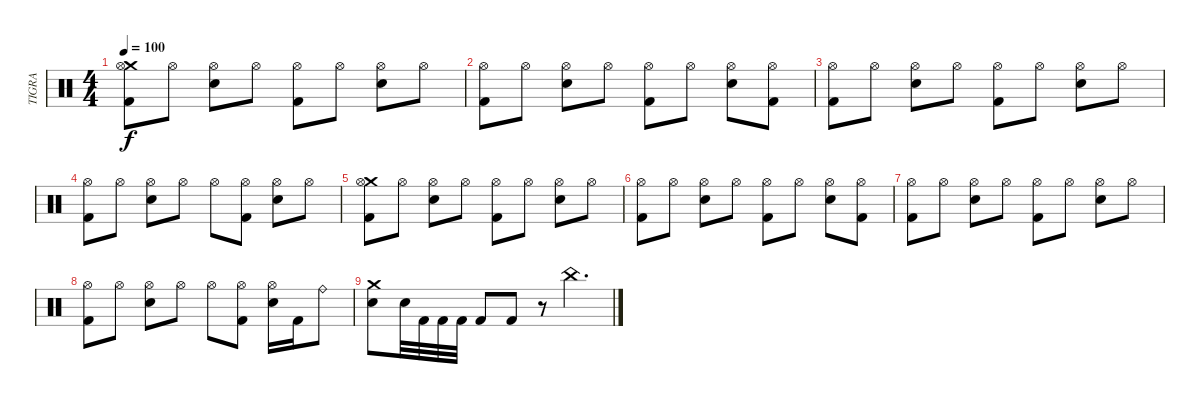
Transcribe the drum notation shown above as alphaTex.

\track ("TIGRA" "TIGRA") {instrument percussion}
\staff {score}
\articulation defaults
\ts (4 4)
\tempo 100
\clef neutral
\ks c
("Crash medium (hit)" "Hi-Hat (open)" "Kick (hit) 2").8{dy f} "Hi-Hat (open)".8 ("Hi-Hat (open)" "Snare (hit) 2").8 "Hi-Hat (open)".8 ("Hi-Hat (open)" "Kick (hit) 2").8 "Hi-Hat (open)".8 ("Hi-Hat (open)" "Snare (hit) 2").8 "Hi-Hat (open)".8 |
("Hi-Hat (open)" "Kick (hit) 2").8 "Hi-Hat (open)".8 ("Hi-Hat (open)" "Snare (hit) 2").8 "Hi-Hat (open)".8 ("Hi-Hat (open)" "Kick (hit) 2").8 "Hi-Hat (open)".8 ("Hi-Hat (open)" "Snare (hit) 2").8 ("Hi-Hat (open)" "Kick (hit) 2").8 |
("Hi-Hat (open)" "Kick (hit) 2").8 "Hi-Hat (open)".8 ("Hi-Hat (open)" "Snare (hit) 2").8 "Hi-Hat (open)".8 ("Hi-Hat (open)" "Kick (hit) 2").8 "Hi-Hat (open)".8 ("Hi-Hat (open)" "Snare (hit) 2").8 "Hi-Hat (open)".8 |
("Hi-Hat (open)" "Kick (hit) 2").8 "Hi-Hat (open)".8 ("Hi-Hat (open)" "Snare (hit) 2").8 "Hi-Hat (open)".8 "Hi-Hat (open)".8 ("Hi-Hat (open)" "Kick (hit) 2").8 ("Hi-Hat (open)" "Snare (hit) 2").8 "Hi-Hat (open)".8 |
("Crash medium (hit)" "Hi-Hat (open)" "Kick (hit) 2").8 "Hi-Hat (open)".8 ("Hi-Hat (open)" "Snare (hit) 2").8 "Hi-Hat (open)".8 ("Hi-Hat (open)" "Kick (hit) 2").8 "Hi-Hat (open)".8 ("Hi-Hat (open)" "Snare (hit) 2").8 "Hi-Hat (open)".8 |
("Hi-Hat (open)" "Kick (hit) 2").8 "Hi-Hat (open)".8 ("Hi-Hat (open)" "Snare (hit) 2").8 "Hi-Hat (open)".8 ("Hi-Hat (open)" "Kick (hit) 2").8 "Hi-Hat (open)".8 ("Hi-Hat (open)" "Snare (hit) 2").8 ("Hi-Hat (open)" "Kick (hit) 2").8 |
("Hi-Hat (open)" "Kick (hit) 2").8 "Hi-Hat (open)".8 ("Hi-Hat (open)" "Snare (hit) 2").8 "Hi-Hat (open)".8 ("Hi-Hat (open)" "Kick (hit) 2").8 "Hi-Hat (open)".8 ("Hi-Hat (open)" "Snare (hit) 2").8 "Hi-Hat (open)".8 |
("Hi-Hat (open)" "Kick (hit) 2").8 "Hi-Hat (open)".8 ("Hi-Hat (open)" "Snare (hit) 2").8 "Hi-Hat (open)".8 "Hi-Hat (open)".8 ("Hi-Hat (open)" "Kick (hit) 2").8 ("Hi-Hat (open)" "Snare (hit) 2").16 "Kick (hit) 2".16 "Ride (bell)".8 |
("Crash medium (hit)" "Snare (hit) 2").8 "Snare (hit) 2".32 "Kick (hit) 2".32 "Kick (hit) 2".32 "Kick (hit) 2".32 "Kick (hit) 2".8 "Kick (hit) 2".8 r.8 "China (hit)".4{d}
